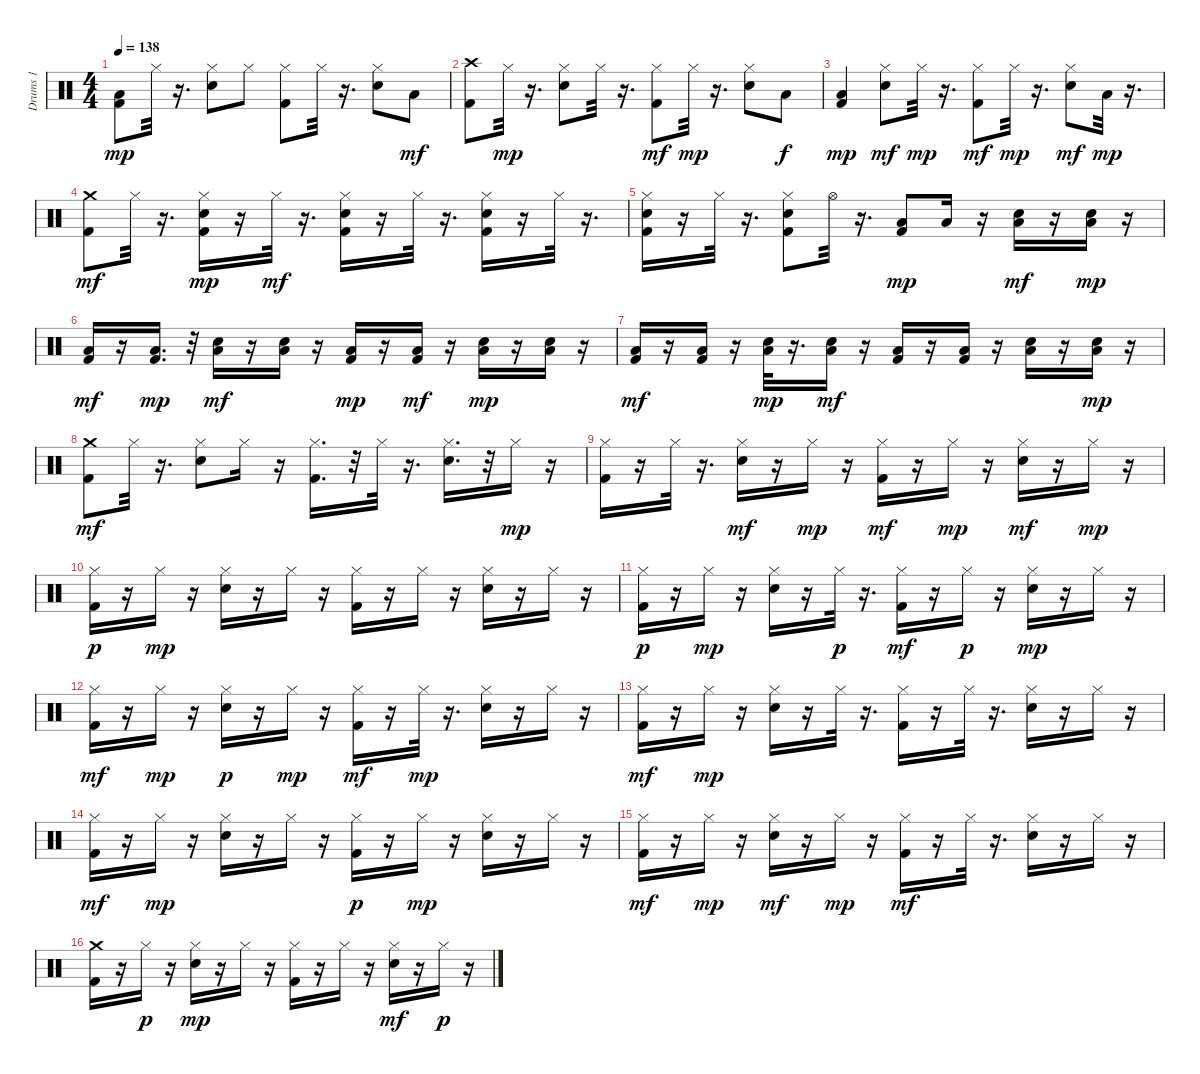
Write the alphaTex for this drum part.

\track ("Drums 1" "Drums 1") {instrument percussion}
\staff {score}
\articulation defaults
\ts (4 4)
\tempo 138
\clef neutral
\ks c
("Low Floor Tom (hit)" "Kick (hit) 2").8{dy mp} "Hi-Hat (closed)".32 r.16{d} ("Hi-Hat (closed)" "Snare (hit) 2").8 "Hi-Hat (closed)".8 ("Kick (hit) 2" "Hi-Hat (closed)").8 "Hi-Hat (closed)".32 r.16{d} ("Snare (hit) 2" "Hi-Hat (closed)").8 "Low Floor Tom (hit)".8{dy mf} |
("Kick (hit) 2" "Crash high (hit)").8 "Hi-Hat (closed)".32{dy mp} r.16{d} ("Hi-Hat (closed)" "Snare (hit) 2").8 "Hi-Hat (closed)".32 r.16{d} ("Kick (hit) 2" "Hi-Hat (closed)").8{dy mf} "Hi-Hat (closed)".32{dy mp} r.16{d} ("Hi-Hat (closed)" "Snare (hit) 2").8 "Low Tom (hit)".8{dy f} |
("Low Floor Tom (hit)" "Kick (hit) 2").4{dy mp} ("Snare (hit) 2" "Hi-Hat (closed)").8{dy mf} "Hi-Hat (closed)".32{dy mp} r.16{d} ("Kick (hit) 2" "Hi-Hat (closed)").8{dy mf} "Hi-Hat (closed)".32{dy mp} r.16{d} ("Snare (hit) 2" "Hi-Hat (closed)").8{dy mf} "Low Floor Tom (hit)".32{dy mp} r.16{d} |
("Crash medium (hit)" "Kick (hit) 2").8{dy mf} "Hi-Hat (closed)".32 r.16{d} ("Kick (hit) 2" "Hi-Hat (closed)" "Snare (hit) 2").16{dy mp} r.16 "Hi-Hat (closed)".32{dy mf} r.16{d} ("Hi-Hat (closed)" "Kick (hit) 2" "Snare (hit) 2").16 r.16 "Hi-Hat (closed)".32 r.16{d} ("Kick (hit) 2" "Hi-Hat (closed)" "Snare (hit) 2").16 r.16 "Hi-Hat (closed)".32 r.16{d} |
("Hi-Hat (closed)" "Kick (hit) 2" "Snare (hit) 2").16 r.16 "Hi-Hat (closed)".32 r.16{d} ("Kick (hit) 2" "Snare (hit) 2" "Hi-Hat (closed)").8 "Hi-Hat (open)".32 r.16{d} ("Kick (hit) 2" "Low Floor Tom (hit)").8{dy mp} "Low Floor Tom (hit)".16 r.16 ("Snare (hit) 2" "Low Floor Tom (hit)").16{dy mf} r.16 ("Low Floor Tom (hit)" "Snare (hit) 2").16{dy mp} r.16 |
("Kick (hit) 2" "Low Floor Tom (hit)").16{dy mf} r.16 ("Low Floor Tom (hit)" "Kick (hit) 2").16{d dy mp} r.32 ("Low Floor Tom (hit)" "Snare (hit) 2").16{dy mf} r.16 ("Snare (hit) 2" "Low Floor Tom (hit)").16 r.16 ("Low Floor Tom (hit)" "Kick (hit) 2").16{dy mp} r.16 ("Kick (hit) 2" "Low Floor Tom (hit)").16{dy mf} r.16 ("Low Floor Tom (hit)" "Snare (hit) 2").16{dy mp} r.16 ("Low Floor Tom (hit)" "Snare (hit) 2").16 r.16 |
("Kick (hit) 2" "Low Floor Tom (hit)").16{dy mf} r.16 ("Kick (hit) 2" "Low Floor Tom (hit)").16 r.16 ("Low Floor Tom (hit)" "Snare (hit) 2").32{dy mp} r.16{d} ("Snare (hit) 2" "Low Floor Tom (hit)").16{dy mf} r.16 ("Kick (hit) 2" "Low Floor Tom (hit)").16 r.16 ("Kick (hit) 2" "Low Floor Tom (hit)").16 r.16 ("Snare (hit) 2" "Low Floor Tom (hit)").16 r.16 ("Low Floor Tom (hit)" "Snare (hit) 2").16{dy mp} r.16 |
("Kick (hit) 2" "Crash medium (hit)").8{dy mf} "Hi-Hat (closed)".32 r.16{d} ("Hi-Hat (closed)" "Snare (hit) 2").8 "Hi-Hat (closed)".16 r.16 ("Kick (hit) 2" "Hi-Hat (closed)").16{d} r.32 "Hi-Hat (closed)".32 r.16{d} ("Hi-Hat (closed)" "Snare (hit) 2").16{d} r.32 "Hi-Hat (closed)".16{dy mp} r.16 |
("Hi-Hat (closed)" "Kick (hit) 2").16 r.16 "Hi-Hat (closed)".32 r.16{d} ("Hi-Hat (closed)" "Snare (hit) 2").16{dy mf} r.16 "Hi-Hat (closed)".16{dy mp} r.16 ("Kick (hit) 2" "Hi-Hat (closed)").16{dy mf} r.16 "Hi-Hat (closed)".16{dy mp} r.16 ("Hi-Hat (closed)" "Snare (hit) 2").16{dy mf} r.16 "Hi-Hat (closed)".16{dy mp} r.16 |
("Hi-Hat (closed)" "Kick (hit) 2").16{dy p} r.16 "Hi-Hat (closed)".16{dy mp} r.16 ("Hi-Hat (closed)" "Snare (hit) 2").16 r.16 "Hi-Hat (closed)".16 r.16 ("Hi-Hat (closed)" "Kick (hit) 2").16 r.16 "Hi-Hat (closed)".16 r.16 ("Hi-Hat (closed)" "Snare (hit) 2").16 r.16 "Hi-Hat (closed)".16 r.16 |
("Hi-Hat (closed)" "Kick (hit) 2").16{dy p} r.16 "Hi-Hat (closed)".16{dy mp} r.16 ("Hi-Hat (closed)" "Snare (hit) 2").16 r.16 "Hi-Hat (closed)".32{dy p} r.16{d} ("Kick (hit) 2" "Hi-Hat (closed)").16{dy mf} r.16 "Hi-Hat (closed)".16{dy p} r.16 ("Hi-Hat (closed)" "Snare (hit) 2").16{dy mp} r.16 "Hi-Hat (closed)".16 r.16 |
("Kick (hit) 2" "Hi-Hat (closed)").16{dy mf} r.16 "Hi-Hat (closed)".16{dy mp} r.16 ("Hi-Hat (closed)" "Snare (hit) 2").16{dy p} r.16 "Hi-Hat (closed)".16{dy mp} r.16 ("Kick (hit) 2" "Hi-Hat (closed)").16{dy mf} r.16 "Hi-Hat (closed)".32{dy mp} r.16{d} ("Hi-Hat (closed)" "Snare (hit) 2").16 r.16 "Hi-Hat (closed)".16 r.16 |
("Kick (hit) 2" "Hi-Hat (closed)").16{dy mf} r.16 "Hi-Hat (closed)".16{dy mp} r.16 ("Hi-Hat (closed)" "Snare (hit) 2").16 r.16 "Hi-Hat (closed)".32 r.16{d} ("Hi-Hat (closed)" "Kick (hit) 2").16 r.16 "Hi-Hat (closed)".32 r.16{d} ("Hi-Hat (closed)" "Snare (hit) 2").16 r.16 "Hi-Hat (closed)".16 r.16 |
("Kick (hit) 2" "Hi-Hat (closed)").16{dy mf} r.16 "Hi-Hat (closed)".16{dy mp} r.16 ("Hi-Hat (closed)" "Snare (hit) 2").16 r.16 "Hi-Hat (closed)".16 r.16 ("Hi-Hat (closed)" "Kick (hit) 2").16{dy p} r.16 "Hi-Hat (closed)".16{dy mp} r.16 ("Hi-Hat (closed)" "Snare (hit) 2").16 r.16 "Hi-Hat (closed)".16 r.16 |
("Kick (hit) 2" "Hi-Hat (closed)").16{dy mf} r.16 "Hi-Hat (closed)".16{dy mp} r.16 ("Snare (hit) 2" "Hi-Hat (closed)").16{dy mf} r.16 "Hi-Hat (closed)".16{dy mp} r.16 ("Kick (hit) 2" "Hi-Hat (closed)").16{dy mf} r.16 "Hi-Hat (closed)".32 r.16{d} ("Snare (hit) 2" "Hi-Hat (closed)").16 r.16 "Hi-Hat (closed)".16 r.16 |
("Kick (hit) 2" "Crash medium (hit)").16 r.16 "Hi-Hat (closed)".16{dy p} r.16 ("Hi-Hat (closed)" "Snare (hit) 2").16{dy mp} r.16 "Hi-Hat (closed)".16 r.16 ("Kick (hit) 2" "Hi-Hat (closed)").16 r.16 "Hi-Hat (closed)".16 r.16 ("Hi-Hat (closed)" "Snare (hit) 2").16{dy mf} r.16 "Hi-Hat (closed)".16{dy p} r.16
